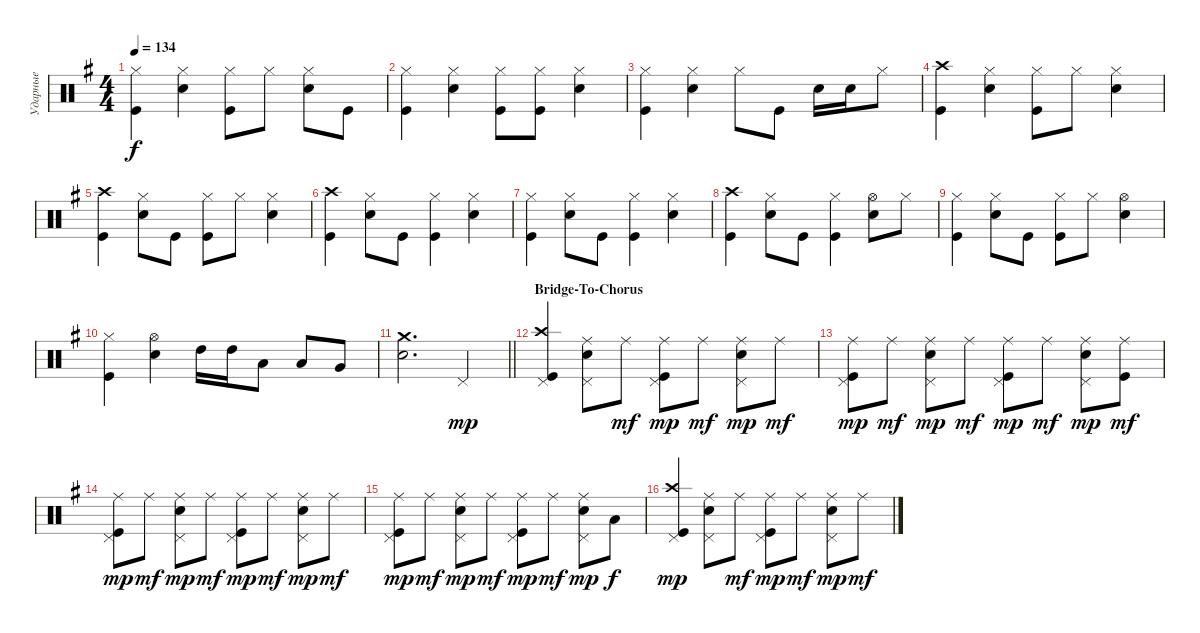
\track ("Ударные" "Ударные") {instrument percussion}
\staff {score}
\articulation defaults
\ts (4 4)
\tempo 134
\clef neutral
\ks eminor
("Hi-Hat (closed)" "Kick (hit)").4{dy f} ("Hi-Hat (closed)" "Snare (hit) 2").4 ("Hi-Hat (closed)" "Kick (hit)").8 "Hi-Hat (closed)".8 ("Hi-Hat (closed)" "Snare (hit) 2").8 "Kick (hit)".8 |
("Hi-Hat (closed)" "Kick (hit)").4 ("Hi-Hat (closed)" "Snare (hit) 2").4 ("Hi-Hat (closed)" "Kick (hit)").8 ("Hi-Hat (closed)" "Kick (hit)").8 ("Hi-Hat (closed)" "Snare (hit) 2").4 |
("Hi-Hat (closed)" "Kick (hit)").4 ("Hi-Hat (closed)" "Snare (hit) 2").4 "Hi-Hat (closed)".8 "Kick (hit)".8 "Snare (hit) 2".16 "Snare (hit) 2".16 "Hi-Hat (closed)".8 |
("Crash high (hit)" "Kick (hit)").4 ("Hi-Hat (closed)" "Snare (hit) 2").4 ("Hi-Hat (closed)" "Kick (hit)").8 "Hi-Hat (closed)".8 ("Hi-Hat (closed)" "Snare (hit) 2").4 |
("Crash high (hit)" "Kick (hit)").4 ("Hi-Hat (closed)" "Snare (hit) 2").8 "Kick (hit)".8 ("Hi-Hat (closed)" "Kick (hit)").8 "Hi-Hat (closed)".8 ("Hi-Hat (closed)" "Snare (hit) 2").4 |
("Crash high (hit)" "Kick (hit)").4 ("Hi-Hat (closed)" "Snare (hit) 2").8 "Kick (hit)".8 ("Hi-Hat (closed)" "Kick (hit)").4 ("Hi-Hat (closed)" "Snare (hit) 2").4 |
("Hi-Hat (closed)" "Kick (hit)").4 ("Hi-Hat (closed)" "Snare (hit) 2").8 "Kick (hit)".8 ("Hi-Hat (closed)" "Kick (hit)").4 ("Hi-Hat (closed)" "Snare (hit) 2").4 |
("Crash high (hit)" "Kick (hit)").4 ("Hi-Hat (closed)" "Snare (hit) 2").8 "Kick (hit)".8 ("Hi-Hat (closed)" "Kick (hit)").4 ("Hi-Hat (open)" "Snare (hit) 2").8 "Hi-Hat (closed)".8 |
("Hi-Hat (closed)" "Kick (hit)").4 ("Hi-Hat (closed)" "Snare (hit) 2").8 "Kick (hit)".8 ("Hi-Hat (closed)" "Kick (hit)").8 "Hi-Hat (closed)".8 ("Hi-Hat (open)" "Snare (hit) 2").4 |
("Kick (hit)" "Hi-Hat (closed)").4 ("Hi-Hat (open)" "Snare (hit) 2").4 "High Tom (hit)".16 "High Tom (hit)".16 "Low Tom (hit)".8 "Low Tom (hit)".8 "Very Low Tom (hit)".8 |
\barLineRight lightlight
("Snare (hit) 2" "Crash medium (hit)").2{d} "Pedal Hi-Hat (hit)".4{dy mp} |
\section ("" "Bridge-To-Chorus")
("Pedal Hi-Hat (hit)" "Crash high (hit)" "Kick (hit)").4 ("Snare (hit) 2" "Ride (middle)" "Pedal Hi-Hat (hit)").8 "Ride (middle)".8{dy mf} ("Ride (middle)" "Pedal Hi-Hat (hit)" "Kick (hit)").8{dy mp} "Ride (middle)".8{dy mf} ("Ride (middle)" "Pedal Hi-Hat (hit)" "Snare (hit) 2").8{dy mp} "Ride (middle)".8{dy mf} |
("Ride (middle)" "Pedal Hi-Hat (hit)" "Kick (hit)").8{dy mp} "Ride (middle)".8{dy mf} ("Ride (middle)" "Pedal Hi-Hat (hit)" "Snare (hit) 2").8{dy mp} "Ride (middle)".8{dy mf} ("Ride (middle)" "Pedal Hi-Hat (hit)" "Kick (hit)").8{dy mp} "Ride (middle)".8{dy mf} ("Ride (middle)" "Pedal Hi-Hat (hit)" "Snare (hit) 2").8{dy mp} ("Ride (middle)" "Kick (hit)").8{dy mf} |
("Ride (middle)" "Pedal Hi-Hat (hit)" "Kick (hit)").8{dy mp} "Ride (middle)".8{dy mf} ("Ride (middle)" "Pedal Hi-Hat (hit)" "Snare (hit) 2").8{dy mp} "Ride (middle)".8{dy mf} ("Ride (middle)" "Pedal Hi-Hat (hit)" "Kick (hit)").8{dy mp} "Ride (middle)".8{dy mf} ("Ride (middle)" "Pedal Hi-Hat (hit)" "Snare (hit) 2").8{dy mp} "Ride (middle)".8{dy mf} |
("Ride (middle)" "Pedal Hi-Hat (hit)" "Kick (hit)").8{dy mp} "Ride (middle)".8{dy mf} ("Ride (middle)" "Pedal Hi-Hat (hit)" "Snare (hit) 2").8{dy mp} "Ride (middle)".8{dy mf} ("Ride (middle)" "Pedal Hi-Hat (hit)" "Kick (hit)").8{dy mp} "Ride (middle)".8{dy mf} ("Ride (middle)" "Pedal Hi-Hat (hit)" "Snare (hit) 2").8{dy mp} "Low Tom (hit)".8{dy f} |
("Crash high (hit)" "Pedal Hi-Hat (hit)" "Kick (hit)").4{dy mp} ("Ride (middle)" "Pedal Hi-Hat (hit)" "Snare (hit) 2").8 "Ride (middle)".8{dy mf} ("Ride (middle)" "Pedal Hi-Hat (hit)" "Kick (hit)").8{dy mp} "Ride (middle)".8{dy mf} ("Ride (middle)" "Pedal Hi-Hat (hit)" "Snare (hit) 2").8{dy mp} "Ride (middle)".8{dy mf}
